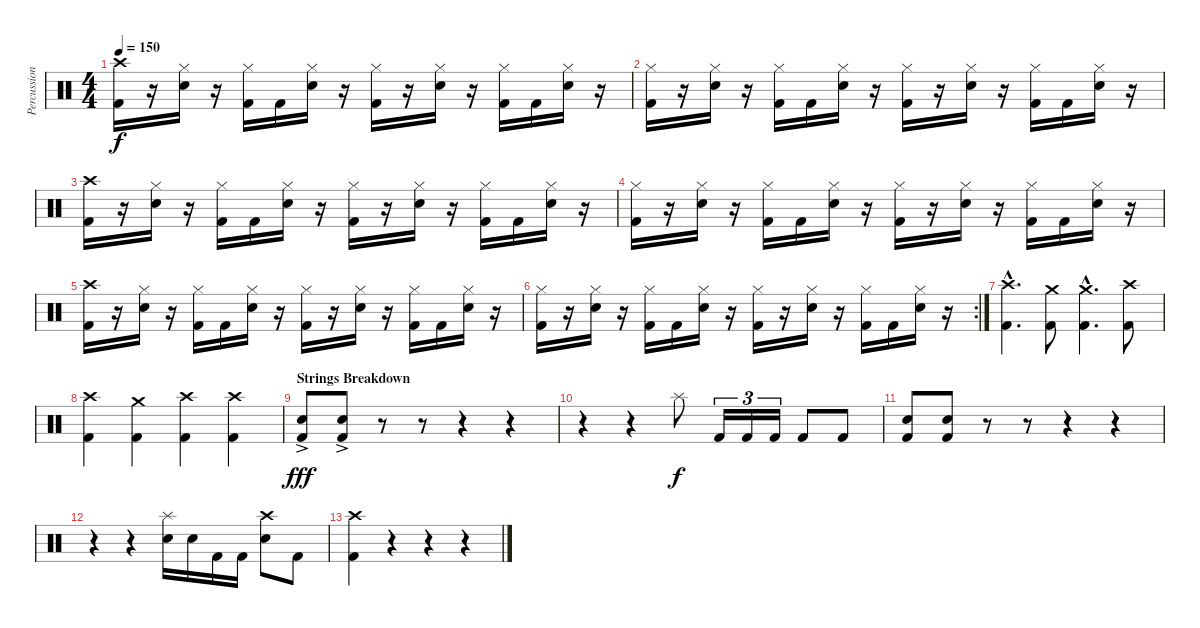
\track ("Percussion" "Percussion") {instrument percussion}
\staff {score}
\articulation defaults
\ts (4 4)
\tempo 150
\clef neutral
\ks c
("Crash high (hit)" "Kick (hit) 2").16{dy f} r.16 ("Hi-Hat (closed)" "Snare (hit) 2").16 r.16 ("Hi-Hat (closed)" "Kick (hit) 2").16 "Kick (hit) 2".16 ("Hi-Hat (closed)" "Snare (hit) 2").16 r.16 ("Hi-Hat (closed)" "Kick (hit) 2").16 r.16 ("Hi-Hat (closed)" "Snare (hit) 2").16 r.16 ("Hi-Hat (closed)" "Kick (hit) 2").16 "Kick (hit) 2".16 ("Hi-Hat (closed)" "Snare (hit) 2").16 r.16 |
("Hi-Hat (closed)" "Kick (hit) 2").16 r.16 ("Hi-Hat (closed)" "Snare (hit) 2").16 r.16 ("Hi-Hat (closed)" "Kick (hit) 2").16 "Kick (hit) 2".16 ("Hi-Hat (closed)" "Snare (hit) 2").16 r.16 ("Hi-Hat (closed)" "Kick (hit) 2").16 r.16 ("Hi-Hat (closed)" "Snare (hit) 2").16 r.16 ("Hi-Hat (closed)" "Kick (hit) 2").16 "Kick (hit) 2".16 ("Hi-Hat (closed)" "Snare (hit) 2").16 r.16 |
("Crash high (hit)" "Kick (hit) 2").16 r.16 ("Hi-Hat (closed)" "Snare (hit) 2").16 r.16 ("Hi-Hat (closed)" "Kick (hit) 2").16 "Kick (hit) 2".16 ("Hi-Hat (closed)" "Snare (hit) 2").16 r.16 ("Hi-Hat (closed)" "Kick (hit) 2").16 r.16 ("Hi-Hat (closed)" "Snare (hit) 2").16 r.16 ("Hi-Hat (closed)" "Kick (hit) 2").16 "Kick (hit) 2".16 ("Hi-Hat (closed)" "Snare (hit) 2").16 r.16 |
("Hi-Hat (closed)" "Kick (hit) 2").16 r.16 ("Hi-Hat (closed)" "Snare (hit) 2").16 r.16 ("Hi-Hat (closed)" "Kick (hit) 2").16 "Kick (hit) 2".16 ("Hi-Hat (closed)" "Snare (hit) 2").16 r.16 ("Hi-Hat (closed)" "Kick (hit) 2").16 r.16 ("Hi-Hat (closed)" "Snare (hit) 2").16 r.16 ("Hi-Hat (closed)" "Kick (hit) 2").16 "Kick (hit) 2".16 ("Hi-Hat (closed)" "Snare (hit) 2").16 r.16 |
("Crash high (hit)" "Kick (hit) 2").16 r.16 ("Hi-Hat (closed)" "Snare (hit) 2").16 r.16 ("Hi-Hat (closed)" "Kick (hit) 2").16 "Kick (hit) 2".16 ("Hi-Hat (closed)" "Snare (hit) 2").16 r.16 ("Hi-Hat (closed)" "Kick (hit) 2").16 r.16 ("Hi-Hat (closed)" "Snare (hit) 2").16 r.16 ("Hi-Hat (closed)" "Kick (hit) 2").16 "Kick (hit) 2".16 ("Hi-Hat (closed)" "Snare (hit) 2").16 r.16 |
\rc 2
("Hi-Hat (closed)" "Kick (hit) 2").16 r.16 ("Hi-Hat (closed)" "Snare (hit) 2").16 r.16 ("Hi-Hat (closed)" "Kick (hit) 2").16 "Kick (hit) 2".16 ("Hi-Hat (closed)" "Snare (hit) 2").16 r.16 ("Hi-Hat (closed)" "Kick (hit) 2").16 r.16 ("Hi-Hat (closed)" "Snare (hit) 2").16 r.16 ("Hi-Hat (closed)" "Kick (hit) 2").16 "Kick (hit) 2".16 ("Hi-Hat (closed)" "Snare (hit) 2").16 r.16 |
("Crash high (hit)"{hac} "Kick (hit) 2"{hac}).4{d} ("Crash medium (hit)" "Kick (hit) 2").8 ("Crash medium (hit)"{hac} "Kick (hit) 2"{hac}).4{d} ("Crash high (hit)" "Kick (hit) 2").8 |
("Crash high (hit)" "Kick (hit) 2").4 ("Crash medium (hit)" "Kick (hit) 2").4 ("Crash high (hit)" "Kick (hit) 2").4 ("Crash high (hit)" "Kick (hit) 2").4 |
\section ("" "Strings Breakdown")
("Snare (hit) 2"{ac} "Kick (hit) 2").8{dy fff} ("Snare (hit) 2"{ac} "Kick (hit) 2").8 r.8 r.8 r.4 r.4 |
r.4 r.4 "Splash (hit)".8{dy f} "Kick (hit) 2".16{tu (3 2)} "Kick (hit) 2".16{tu (3 2)} "Kick (hit) 2".16{tu (3 2)} "Kick (hit) 2".8 "Kick (hit) 2".8 |
("Snare (hit) 2" "Kick (hit) 2").8 ("Snare (hit) 2" "Kick (hit) 2").8 r.8 r.8 r.4 r.4 |
r.4 r.4 ("Splash (hit)" "Snare (hit) 2").16 "Snare (hit) 2".16 "Kick (hit) 2".16 "Kick (hit) 2".16 ("Crash high (hit)" "Snare (hit) 2").8 "Kick (hit) 2".8 |
("Crash high (hit)" "Kick (hit) 2").4 r.4 r.4 r.4
